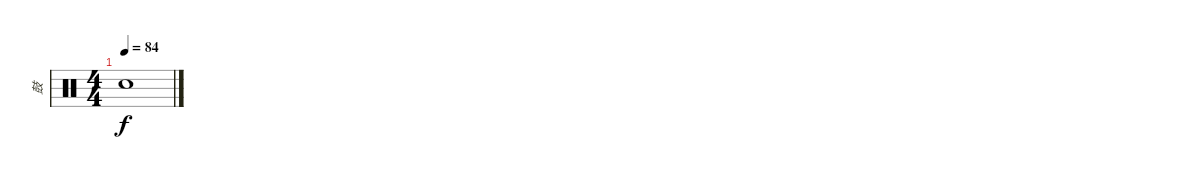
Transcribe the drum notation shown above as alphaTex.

\track ("鼓" "鼓") {instrument percussion}
\staff {score}
\articulation defaults
\ts (4 4)
\tempo 84
\clef neutral
\ks c "Snare (hit)"{t}.1{dy f}
